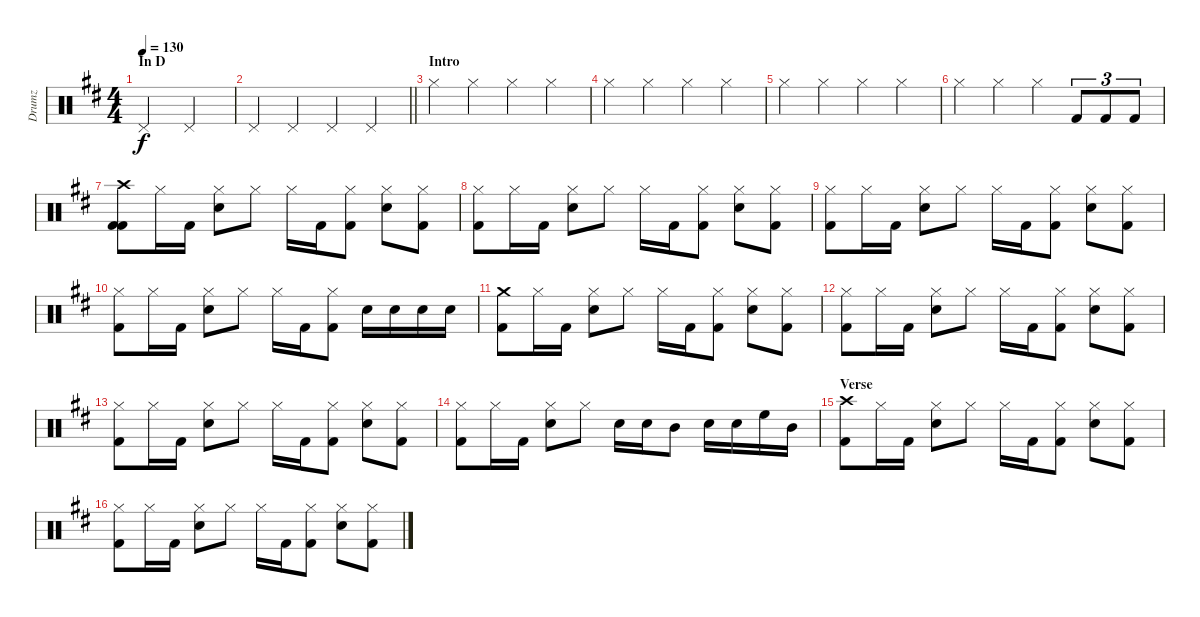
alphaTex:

\track ("Drumz" "Drumz") {instrument percussion}
\staff {score}
\articulation defaults
\ts (4 4)
\section ("" "In D")
\tempo 130
\clef neutral
\ks d "Pedal Hi-Hat (hit)".2{dy f} "Pedal Hi-Hat (hit)".2
|
\barLineRight lightlight "Pedal Hi-Hat (hit)".4 "Pedal Hi-Hat (hit)".4 "Pedal Hi-Hat (hit)".4 "Pedal Hi-Hat (hit)".4
|
\section ("" "Intro")
"Hi-Hat (closed)".4 "Hi-Hat (closed)".4 "Hi-Hat (closed)".4 "Hi-Hat (closed)".4 |
"Hi-Hat (closed)".4 "Hi-Hat (closed)".4 "Hi-Hat (closed)".4 "Hi-Hat (closed)".4 |
"Hi-Hat (closed)".4 "Hi-Hat (closed)".4 "Hi-Hat (closed)".4 "Hi-Hat (closed)".4 |
"Hi-Hat (closed)".4 "Hi-Hat (closed)".4 "Hi-Hat (closed)".4 "Kick (hit) 2".8{tu (3 2)} "Kick (hit) 2".8{tu (3 2)} "Kick (hit) 2".8{tu (3 2)} |
("Crash high (hit)" "Kick (hit) 2" "Kick (hit) 2").8 "Hi-Hat (closed)".16 "Kick (hit) 2".16 ("Hi-Hat (closed)" "Snare (hit) 2").8 "Hi-Hat (closed)".8 "Hi-Hat (closed)".16 "Kick (hit) 2".16 ("Hi-Hat (closed)" "Kick (hit) 2").8 ("Hi-Hat (closed)" "Snare (hit) 2").8 ("Hi-Hat (closed)" "Kick (hit) 2").8 |
("Hi-Hat (closed)" "Kick (hit) 2").8 "Hi-Hat (closed)".16 "Kick (hit) 2".16 ("Hi-Hat (closed)" "Snare (hit) 2").8 "Hi-Hat (closed)".8 "Hi-Hat (closed)".16 "Kick (hit) 2".16 ("Hi-Hat (closed)" "Kick (hit) 2").8 ("Hi-Hat (closed)" "Snare (hit) 2").8 ("Hi-Hat (closed)" "Kick (hit) 2").8 |
("Hi-Hat (closed)" "Kick (hit) 2").8 "Hi-Hat (closed)".16 "Kick (hit) 2".16 ("Hi-Hat (closed)" "Snare (hit) 2").8 "Hi-Hat (closed)".8 "Hi-Hat (closed)".16 "Kick (hit) 2".16 ("Hi-Hat (closed)" "Kick (hit) 2").8 ("Hi-Hat (closed)" "Snare (hit) 2").8 ("Hi-Hat (closed)" "Kick (hit) 2").8 |
("Hi-Hat (closed)" "Kick (hit) 2").8 "Hi-Hat (closed)".16 "Kick (hit) 2".16 ("Hi-Hat (closed)" "Snare (hit) 2").8 "Hi-Hat (closed)".8 "Hi-Hat (closed)".16 "Kick (hit) 2".16 ("Hi-Hat (closed)" "Kick (hit) 2").8 "Snare (hit) 2".16 "Snare (hit) 2".16 "Snare (hit) 2".16 "Snare (hit) 2".16 |
("Crash medium (hit)" "Kick (hit) 2").8 "Hi-Hat (closed)".16 "Kick (hit) 2".16 ("Hi-Hat (closed)" "Snare (hit) 2").8 "Hi-Hat (closed)".8 "Hi-Hat (closed)".16 "Kick (hit) 2".16 ("Hi-Hat (closed)" "Kick (hit) 2").8 ("Hi-Hat (closed)" "Snare (hit) 2").8 ("Hi-Hat (closed)" "Kick (hit) 2").8 |
("Hi-Hat (closed)" "Kick (hit) 2").8 "Hi-Hat (closed)".16 "Kick (hit) 2".16 ("Hi-Hat (closed)" "Snare (hit) 2").8 "Hi-Hat (closed)".8 "Hi-Hat (closed)".16 "Kick (hit) 2".16 ("Hi-Hat (closed)" "Kick (hit) 2").8 ("Hi-Hat (closed)" "Snare (hit) 2").8 ("Hi-Hat (closed)" "Kick (hit) 2").8 |
("Hi-Hat (closed)" "Kick (hit) 2").8 "Hi-Hat (closed)".16 "Kick (hit) 2".16 ("Hi-Hat (closed)" "Snare (hit) 2").8 "Hi-Hat (closed)".8 "Hi-Hat (closed)".16 "Kick (hit) 2".16 ("Hi-Hat (closed)" "Kick (hit) 2").8 ("Hi-Hat (closed)" "Snare (hit) 2").8 ("Hi-Hat (closed)" "Kick (hit) 2").8 |
("Hi-Hat (closed)" "Kick (hit) 2").8 "Hi-Hat (closed)".16 "Kick (hit) 2".16 ("Hi-Hat (closed)" "Snare (hit) 2").8 "Hi-Hat (closed)".8 "Snare (hit) 2".16 "Snare (hit) 2".16 "Mid Tom (hit)".8 "Snare (hit) 2".16 "Snare (hit) 2".16 "High Floor Tom (hit)".16 "Mid Tom (hit)".16 |
\section ("" "Verse")
("Crash high (hit)" "Kick (hit) 2").8 "Hi-Hat (closed)".16 "Kick (hit) 2".16 ("Hi-Hat (closed)" "Snare (hit) 2").8 "Hi-Hat (closed)".8 "Hi-Hat (closed)".16 "Kick (hit) 2".16 ("Hi-Hat (closed)" "Kick (hit) 2").8 ("Hi-Hat (closed)" "Snare (hit) 2").8 ("Hi-Hat (closed)" "Kick (hit) 2").8 |
("Hi-Hat (closed)" "Kick (hit) 2").8 "Hi-Hat (closed)".16 "Kick (hit) 2".16 ("Hi-Hat (closed)" "Snare (hit) 2").8 "Hi-Hat (closed)".8 "Hi-Hat (closed)".16 "Kick (hit) 2".16 ("Hi-Hat (closed)" "Kick (hit) 2").8 ("Hi-Hat (closed)" "Snare (hit) 2").8 ("Hi-Hat (closed)" "Kick (hit) 2").8
